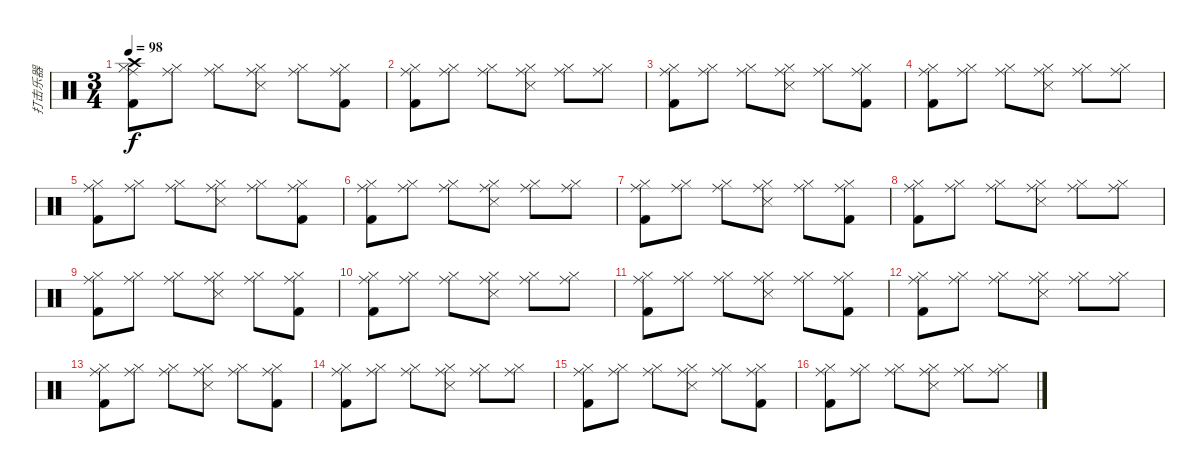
\track ("打击乐器" "打击乐器") {instrument percussion}
\staff {score}
\articulation defaults
\ts (3 4)
\tempo 98
\clef neutral
\ks c
("Kick (hit) 2" "Crash high (hit)" "Hi-Hat (closed)" "Ride (middle)").8{dy f} ("Hi-Hat (closed)" "Ride (middle)").8 ("Hi-Hat (closed)" "Ride (middle)").8 ("Snare (side stick) 3" "Hi-Hat (closed)" "Ride (middle)").8 ("Hi-Hat (closed)" "Ride (middle)").8 ("Kick (hit) 2" "Hi-Hat (closed)" "Ride (middle)").8 |
("Kick (hit) 2" "Hi-Hat (closed)" "Ride (middle)").8 ("Hi-Hat (closed)" "Ride (middle)").8 ("Hi-Hat (closed)" "Ride (middle)").8 ("Snare (side stick) 3" "Hi-Hat (closed)" "Ride (middle)").8 ("Hi-Hat (closed)" "Ride (middle)").8 ("Hi-Hat (closed)" "Ride (middle)").8 |
("Kick (hit) 2" "Hi-Hat (closed)" "Ride (middle)").8 ("Hi-Hat (closed)" "Ride (middle)").8 ("Hi-Hat (closed)" "Ride (middle)").8 ("Snare (side stick) 3" "Hi-Hat (closed)" "Ride (middle)").8 ("Hi-Hat (closed)" "Ride (middle)").8 ("Kick (hit) 2" "Hi-Hat (closed)" "Ride (middle)").8 |
("Kick (hit) 2" "Hi-Hat (closed)" "Ride (middle)").8 ("Hi-Hat (closed)" "Ride (middle)").8 ("Hi-Hat (closed)" "Ride (middle)").8 ("Snare (side stick) 3" "Hi-Hat (closed)" "Ride (middle)").8 ("Hi-Hat (closed)" "Ride (middle)").8 ("Hi-Hat (closed)" "Ride (middle)").8 |
("Kick (hit) 2" "Hi-Hat (closed)" "Ride (middle)").8 ("Hi-Hat (closed)" "Ride (middle)").8 ("Hi-Hat (closed)" "Ride (middle)").8 ("Snare (side stick) 3" "Hi-Hat (closed)" "Ride (middle)").8 ("Hi-Hat (closed)" "Ride (middle)").8 ("Kick (hit) 2" "Hi-Hat (closed)" "Ride (middle)").8 |
("Kick (hit) 2" "Hi-Hat (closed)" "Ride (middle)").8 ("Hi-Hat (closed)" "Ride (middle)").8 ("Hi-Hat (closed)" "Ride (middle)").8 ("Snare (side stick) 3" "Hi-Hat (closed)" "Ride (middle)").8 ("Hi-Hat (closed)" "Ride (middle)").8 ("Hi-Hat (closed)" "Ride (middle)").8 |
("Kick (hit) 2" "Hi-Hat (closed)" "Ride (middle)").8 ("Hi-Hat (closed)" "Ride (middle)").8 ("Hi-Hat (closed)" "Ride (middle)").8 ("Snare (side stick) 3" "Hi-Hat (closed)" "Ride (middle)").8 ("Hi-Hat (closed)" "Ride (middle)").8 ("Kick (hit) 2" "Hi-Hat (closed)" "Ride (middle)").8 |
("Kick (hit) 2" "Hi-Hat (closed)" "Ride (middle)").8 ("Hi-Hat (closed)" "Ride (middle)").8 ("Hi-Hat (closed)" "Ride (middle)").8 ("Snare (side stick) 3" "Hi-Hat (closed)" "Ride (middle)").8 ("Hi-Hat (closed)" "Ride (middle)").8 ("Hi-Hat (closed)" "Ride (middle)").8 |
("Kick (hit) 2" "Hi-Hat (closed)" "Ride (middle)").8 ("Hi-Hat (closed)" "Ride (middle)").8 ("Hi-Hat (closed)" "Ride (middle)").8 ("Snare (side stick) 3" "Hi-Hat (closed)" "Ride (middle)").8 ("Hi-Hat (closed)" "Ride (middle)").8 ("Kick (hit) 2" "Hi-Hat (closed)" "Ride (middle)").8 |
("Kick (hit) 2" "Hi-Hat (closed)" "Ride (middle)").8 ("Hi-Hat (closed)" "Ride (middle)").8 ("Hi-Hat (closed)" "Ride (middle)").8 ("Snare (side stick) 3" "Hi-Hat (closed)" "Ride (middle)").8 ("Hi-Hat (closed)" "Ride (middle)").8 ("Hi-Hat (closed)" "Ride (middle)").8 |
("Kick (hit) 2" "Hi-Hat (closed)" "Ride (middle)").8 ("Hi-Hat (closed)" "Ride (middle)").8 ("Hi-Hat (closed)" "Ride (middle)").8 ("Snare (side stick) 3" "Hi-Hat (closed)" "Ride (middle)").8 ("Hi-Hat (closed)" "Ride (middle)").8 ("Kick (hit) 2" "Hi-Hat (closed)" "Ride (middle)").8 |
("Kick (hit) 2" "Hi-Hat (closed)" "Ride (middle)").8 ("Hi-Hat (closed)" "Ride (middle)").8 ("Hi-Hat (closed)" "Ride (middle)").8 ("Snare (side stick) 3" "Hi-Hat (closed)" "Ride (middle)").8 ("Hi-Hat (closed)" "Ride (middle)").8 ("Hi-Hat (closed)" "Ride (middle)").8 |
("Kick (hit) 2" "Hi-Hat (closed)" "Ride (middle)").8 ("Hi-Hat (closed)" "Ride (middle)").8 ("Hi-Hat (closed)" "Ride (middle)").8 ("Snare (side stick) 3" "Hi-Hat (closed)" "Ride (middle)").8 ("Hi-Hat (closed)" "Ride (middle)").8 ("Kick (hit) 2" "Hi-Hat (closed)" "Ride (middle)").8 |
("Kick (hit) 2" "Hi-Hat (closed)" "Ride (middle)").8 ("Hi-Hat (closed)" "Ride (middle)").8 ("Hi-Hat (closed)" "Ride (middle)").8 ("Snare (side stick) 3" "Hi-Hat (closed)" "Ride (middle)").8 ("Hi-Hat (closed)" "Ride (middle)").8 ("Hi-Hat (closed)" "Ride (middle)").8 |
("Kick (hit) 2" "Hi-Hat (closed)" "Ride (middle)").8 ("Hi-Hat (closed)" "Ride (middle)").8 ("Hi-Hat (closed)" "Ride (middle)").8 ("Snare (side stick) 3" "Hi-Hat (closed)" "Ride (middle)").8 ("Hi-Hat (closed)" "Ride (middle)").8 ("Kick (hit) 2" "Hi-Hat (closed)" "Ride (middle)").8 |
("Kick (hit) 2" "Hi-Hat (closed)" "Ride (middle)").8 ("Hi-Hat (closed)" "Ride (middle)").8 ("Hi-Hat (closed)" "Ride (middle)").8 ("Snare (side stick) 3" "Hi-Hat (closed)" "Ride (middle)").8 ("Hi-Hat (closed)" "Ride (middle)").8 ("Hi-Hat (closed)" "Ride (middle)").8
